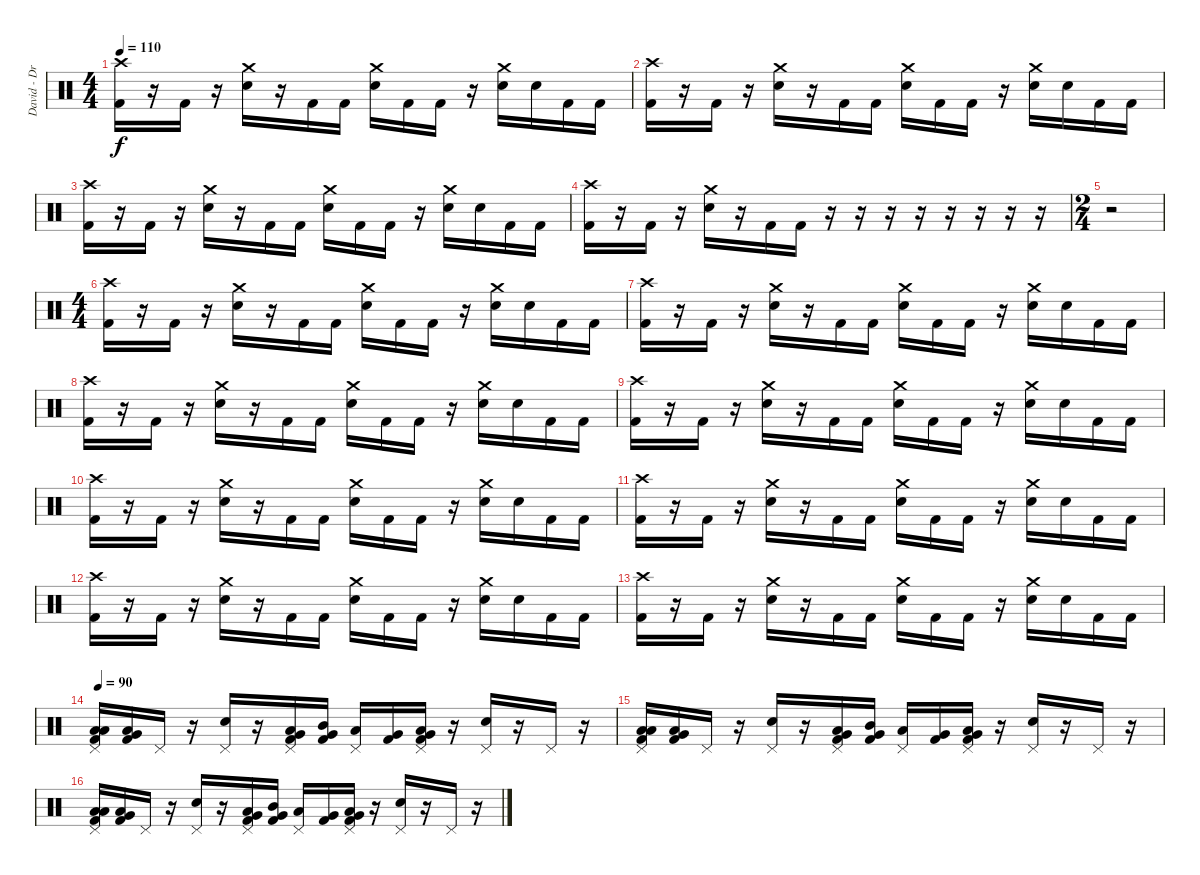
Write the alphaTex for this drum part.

\track ("David - Drums" "David - Dr") {instrument percussion}
\staff {score}
\articulation defaults
\ts (4 4)
\tempo 110
\clef neutral
\ks c
("Crash high (hit)" "Kick (hit) 2").16{dy f} r.16 "Kick (hit) 2".16 r.16 ("Crash medium (hit)" "Electric Snare (hit)").16 r.16 "Kick (hit) 2".16 "Kick (hit) 2".16 ("Crash medium (hit)" "Electric Snare (hit)").16 "Kick (hit) 2".16 "Kick (hit) 2".16 r.16 ("Crash medium (hit)" "Electric Snare (hit)").16 "Electric Snare (hit)".16 "Kick (hit) 2".16 "Kick (hit) 2".16 |
("Crash high (hit)" "Kick (hit) 2").16 r.16 "Kick (hit) 2".16 r.16 ("Crash medium (hit)" "Electric Snare (hit)").16 r.16 "Kick (hit) 2".16 "Kick (hit) 2".16 ("Crash medium (hit)" "Electric Snare (hit)").16 "Kick (hit) 2".16 "Kick (hit) 2".16 r.16 ("Crash medium (hit)" "Electric Snare (hit)").16 "Electric Snare (hit)".16 "Kick (hit) 2".16 "Kick (hit) 2".16 |
("Crash high (hit)" "Kick (hit) 2").16 r.16 "Kick (hit) 2".16 r.16 ("Crash medium (hit)" "Electric Snare (hit)").16 r.16 "Kick (hit) 2".16 "Kick (hit) 2".16 ("Crash medium (hit)" "Electric Snare (hit)").16 "Kick (hit) 2".16 "Kick (hit) 2".16 r.16 ("Crash medium (hit)" "Electric Snare (hit)").16 "Electric Snare (hit)".16 "Kick (hit) 2".16 "Kick (hit) 2".16 |
("Crash high (hit)" "Kick (hit) 2").16 r.16 "Kick (hit) 2".16 r.16 ("Crash medium (hit)" "Electric Snare (hit)").16 r.16 "Kick (hit) 2".16 "Kick (hit) 2".16 r.16 r.16 r.16 r.16 r.16 r.16 r.16 r.16 |
\ts (2 4)
r.2 |
\ts (4 4)
("Crash high (hit)" "Kick (hit) 2").16 r.16 "Kick (hit) 2".16 r.16 ("Crash medium (hit)" "Electric Snare (hit)").16 r.16 "Kick (hit) 2".16 "Kick (hit) 2".16 ("Crash medium (hit)" "Electric Snare (hit)").16 "Kick (hit) 2".16 "Kick (hit) 2".16 r.16 ("Crash medium (hit)" "Electric Snare (hit)").16 "Electric Snare (hit)".16 "Kick (hit) 2".16 "Kick (hit) 2".16 |
("Crash high (hit)" "Kick (hit) 2").16 r.16 "Kick (hit) 2".16 r.16 ("Crash medium (hit)" "Electric Snare (hit)").16 r.16 "Kick (hit) 2".16 "Kick (hit) 2".16 ("Crash medium (hit)" "Electric Snare (hit)").16 "Kick (hit) 2".16 "Kick (hit) 2".16 r.16 ("Crash medium (hit)" "Electric Snare (hit)").16 "Electric Snare (hit)".16 "Kick (hit) 2".16 "Kick (hit) 2".16 |
("Crash high (hit)" "Kick (hit) 2").16 r.16 "Kick (hit) 2".16 r.16 ("Crash medium (hit)" "Electric Snare (hit)").16 r.16 "Kick (hit) 2".16 "Kick (hit) 2".16 ("Crash medium (hit)" "Electric Snare (hit)").16 "Kick (hit) 2".16 "Kick (hit) 2".16 r.16 ("Crash medium (hit)" "Electric Snare (hit)").16 "Electric Snare (hit)".16 "Kick (hit) 2".16 "Kick (hit) 2".16 |
("Crash high (hit)" "Kick (hit) 2").16 r.16 "Kick (hit) 2".16 r.16 ("Crash medium (hit)" "Electric Snare (hit)").16 r.16 "Kick (hit) 2".16 "Kick (hit) 2".16 ("Crash medium (hit)" "Electric Snare (hit)").16 "Kick (hit) 2".16 "Kick (hit) 2".16 r.16 ("Crash medium (hit)" "Electric Snare (hit)").16 "Electric Snare (hit)".16 "Kick (hit) 2".16 "Kick (hit) 2".16 |
("Crash high (hit)" "Kick (hit) 2").16 r.16 "Kick (hit) 2".16 r.16 ("Crash medium (hit)" "Electric Snare (hit)").16 r.16 "Kick (hit) 2".16 "Kick (hit) 2".16 ("Crash medium (hit)" "Electric Snare (hit)").16 "Kick (hit) 2".16 "Kick (hit) 2".16 r.16 ("Crash medium (hit)" "Electric Snare (hit)").16 "Electric Snare (hit)".16 "Kick (hit) 2".16 "Kick (hit) 2".16 |
("Crash high (hit)" "Kick (hit) 2").16 r.16 "Kick (hit) 2".16 r.16 ("Crash medium (hit)" "Electric Snare (hit)").16 r.16 "Kick (hit) 2".16 "Kick (hit) 2".16 ("Crash medium (hit)" "Electric Snare (hit)").16 "Kick (hit) 2".16 "Kick (hit) 2".16 r.16 ("Crash medium (hit)" "Electric Snare (hit)").16 "Electric Snare (hit)".16 "Kick (hit) 2".16 "Kick (hit) 2".16 |
("Crash high (hit)" "Kick (hit) 2").16 r.16 "Kick (hit) 2".16 r.16 ("Crash medium (hit)" "Electric Snare (hit)").16 r.16 "Kick (hit) 2".16 "Kick (hit) 2".16 ("Crash medium (hit)" "Electric Snare (hit)").16 "Kick (hit) 2".16 "Kick (hit) 2".16 r.16 ("Crash medium (hit)" "Electric Snare (hit)").16 "Electric Snare (hit)".16 "Kick (hit) 2".16 "Kick (hit) 2".16 |
("Crash high (hit)" "Kick (hit) 2").16 r.16 "Kick (hit) 2".16 r.16 ("Crash medium (hit)" "Electric Snare (hit)").16 r.16 "Kick (hit) 2".16 "Kick (hit) 2".16 ("Crash medium (hit)" "Electric Snare (hit)").16 "Kick (hit) 2".16 "Kick (hit) 2".16 r.16 ("Crash medium (hit)" "Electric Snare (hit)").16 "Electric Snare (hit)".16 "Kick (hit) 2".16 "Kick (hit) 2".16 |
\tempo 90
("Pedal Hi-Hat (hit)" "Low Tom (hit)" "Low Floor Tom (hit)" "Kick (hit) 2").16 ("Very Low Tom (hit)" "Low Floor Tom (hit)" "Kick (hit) 2").16 "Pedal Hi-Hat (hit)".16 r.16 ("Pedal Hi-Hat (hit)" "Electric Snare (hit)").16 r.16 ("Pedal Hi-Hat (hit)" "Very Low Tom (hit)" "Low Floor Tom (hit)" "Kick (hit) 2").16 ("Very Low Tom (hit)" "Mid Tom (hit)" "Kick (hit) 2").16 ("Pedal Hi-Hat (hit)" "Low Tom (hit)").16 ("Very Low Tom (hit)" "Kick (hit) 2").16 ("Pedal Hi-Hat (hit)" "Very Low Tom (hit)" "Low Floor Tom (hit)" "Kick (hit) 2").16 r.16 ("Pedal Hi-Hat (hit)" "Electric Snare (hit)").16 r.16 "Pedal Hi-Hat (hit)".16 r.16 |
("Pedal Hi-Hat (hit)" "Low Tom (hit)" "Low Floor Tom (hit)" "Kick (hit) 2").16 ("Very Low Tom (hit)" "Low Floor Tom (hit)" "Kick (hit) 2").16 "Pedal Hi-Hat (hit)".16 r.16 ("Pedal Hi-Hat (hit)" "Electric Snare (hit)").16 r.16 ("Pedal Hi-Hat (hit)" "Very Low Tom (hit)" "Low Floor Tom (hit)" "Kick (hit) 2").16 ("Very Low Tom (hit)" "Mid Tom (hit)" "Kick (hit) 2").16 ("Pedal Hi-Hat (hit)" "Low Tom (hit)").16 ("Very Low Tom (hit)" "Kick (hit) 2").16 ("Pedal Hi-Hat (hit)" "Very Low Tom (hit)" "Low Floor Tom (hit)" "Kick (hit) 2").16 r.16 ("Pedal Hi-Hat (hit)" "Electric Snare (hit)").16 r.16 "Pedal Hi-Hat (hit)".16 r.16 |
("Pedal Hi-Hat (hit)" "Low Tom (hit)" "Low Floor Tom (hit)" "Kick (hit) 2").16 ("Very Low Tom (hit)" "Low Floor Tom (hit)" "Kick (hit) 2").16 "Pedal Hi-Hat (hit)".16 r.16 ("Pedal Hi-Hat (hit)" "Electric Snare (hit)").16 r.16 ("Pedal Hi-Hat (hit)" "Very Low Tom (hit)" "Low Floor Tom (hit)" "Kick (hit) 2").16 ("Very Low Tom (hit)" "Mid Tom (hit)" "Kick (hit) 2").16 ("Pedal Hi-Hat (hit)" "Low Tom (hit)").16 ("Very Low Tom (hit)" "Kick (hit) 2").16 ("Pedal Hi-Hat (hit)" "Very Low Tom (hit)" "Low Floor Tom (hit)" "Kick (hit) 2").16 r.16 ("Pedal Hi-Hat (hit)" "Electric Snare (hit)").16 r.16 "Pedal Hi-Hat (hit)".16 r.16
